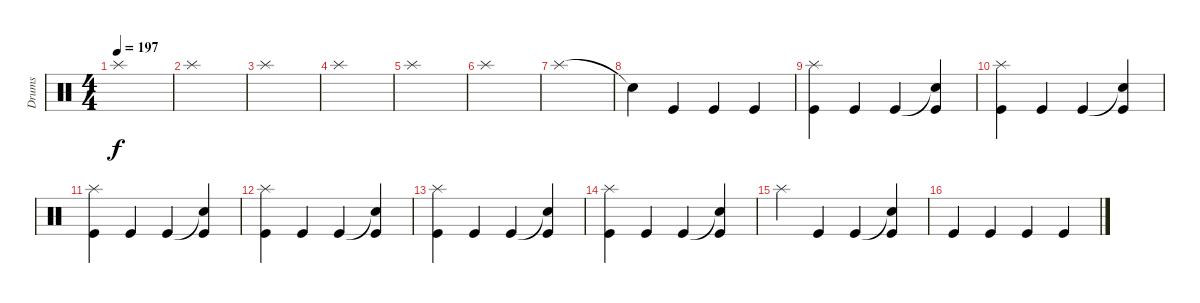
\track ("Drums" "Drums") {instrument percussion}
\staff {score}
\articulation defaults
\ts (4 4)
\tempo 197
\clef neutral
\ks c "Splash (hit)".1{dy f}
|
"Splash (hit)".1 |
"Splash (hit)".1 |
"Splash (hit)".1 |
"Splash (hit)".1 |
"Splash (hit)".1 |
"Splash (hit)".1 |
"Snare (hit)"{t}.4 "Kick (hit)".4 "Kick (hit)".4 "Kick (hit)".4 |
("Splash (hit)" "Kick (hit)").4 "Kick (hit)".4 "Kick (hit)".4 ("Snare (hit)"{t} "Kick (hit)").4 |
("Splash (hit)" "Kick (hit)").4 "Kick (hit)".4 "Kick (hit)".4 ("Snare (hit)"{t} "Kick (hit)").4 |
("Splash (hit)" "Kick (hit)").4 "Kick (hit)".4 "Kick (hit)".4 ("Snare (hit)"{t} "Kick (hit)").4 |
("Splash (hit)" "Kick (hit)").4 "Kick (hit)".4 "Kick (hit)".4 ("Snare (hit)"{t} "Kick (hit)").4 |
("Splash (hit)" "Kick (hit)").4 "Kick (hit)".4 "Kick (hit)".4 ("Snare (hit)"{t} "Kick (hit)").4 |
("Splash (hit)" "Kick (hit)").4 "Kick (hit)".4 "Kick (hit)".4 ("Snare (hit)"{t} "Kick (hit)").4 |
"Splash (hit)".4 "Kick (hit)".4 "Kick (hit)".4 ("Snare (hit)"{t} "Kick (hit)").4 |
"Kick (hit)".4 "Kick (hit)".4 "Kick (hit)".4 "Kick (hit)".4
